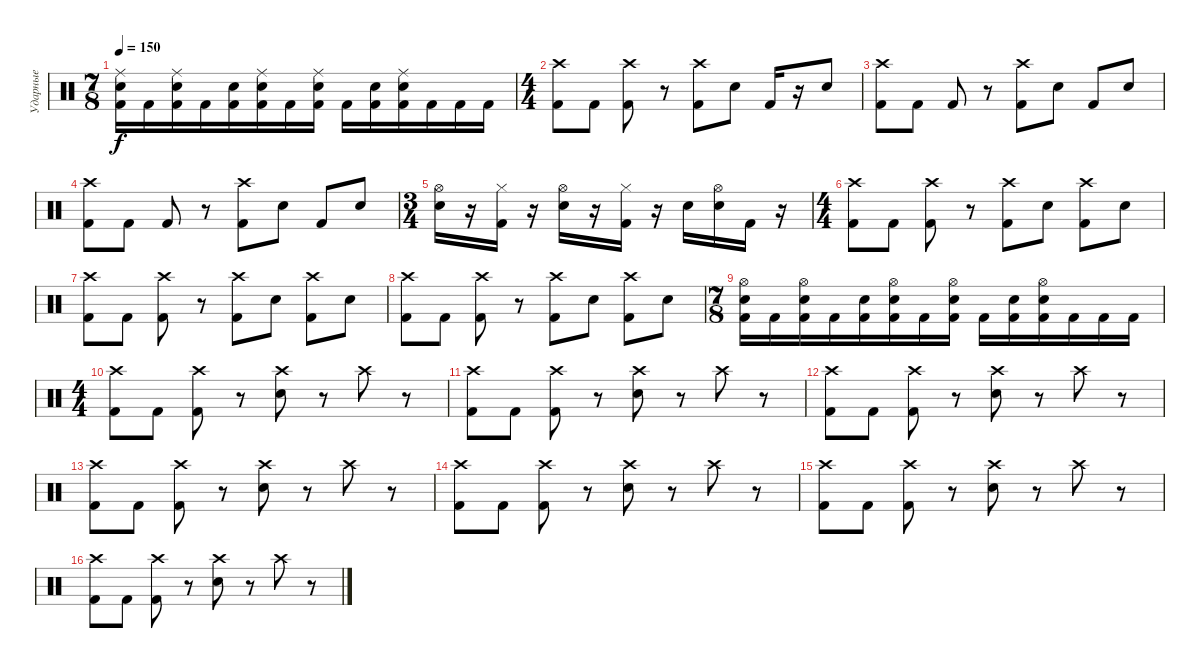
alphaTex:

\track ("Ударные" "Ударные") {instrument percussion}
\staff {score}
\articulation defaults
\ts (7 8)
\tempo 150
\clef neutral
\ks c
("Ride (middle)" "Electric Snare (hit)" "Kick (hit) 2").16{dy f} "Kick (hit) 2".16 ("Ride (middle)" "Electric Snare (hit)" "Kick (hit) 2").16 "Kick (hit) 2".16 ("Electric Snare (hit)" "Kick (hit) 2").16 ("Ride (middle)" "Electric Snare (hit)" "Kick (hit) 2").16 "Kick (hit) 2".16 ("Ride (middle)" "Electric Snare (hit)" "Kick (hit) 2").16 "Kick (hit) 2".16 ("Electric Snare (hit)" "Kick (hit) 2").16 ("Ride (middle)" "Electric Snare (hit)" "Kick (hit) 2").16 "Kick (hit) 2".16 "Kick (hit) 2".16 "Kick (hit) 2".16 |
\ts (4 4)
("Crash high (hit)" "Kick (hit) 2").8 "Kick (hit) 2".8 ("Crash high (hit)" "Kick (hit) 2").8 r.8 ("Crash high (hit)" "Kick (hit) 2").8 "Electric Snare (hit)".8 "Kick (hit) 2".16 r.16 "Electric Snare (hit)".8 |
("Crash high (hit)" "Kick (hit) 2").8 "Kick (hit) 2".8 "Kick (hit) 2".8 r.8 ("Crash high (hit)" "Kick (hit) 2").8 "Electric Snare (hit)".8 "Kick (hit) 2".8 "Electric Snare (hit)".8 |
("Crash high (hit)" "Kick (hit) 2").8 "Kick (hit) 2".8 "Kick (hit) 2".8 r.8 ("Crash high (hit)" "Kick (hit) 2").8 "Electric Snare (hit)".8 "Kick (hit) 2".8 "Electric Snare (hit)".8 |
\ts (3 4)
("Hi-Hat (open)" "Electric Snare (hit)").16 r.16 ("Hi-Hat (closed)" "Kick (hit) 2").16 r.16 ("Hi-Hat (open)" "Electric Snare (hit)").16 r.16 ("Hi-Hat (closed)" "Kick (hit) 2").16 r.16 "Electric Snare (hit)".16 ("Hi-Hat (open)" "Electric Snare (hit)").16 "Kick (hit) 2".16 r.16 |
\ts (4 4)
("Crash high (hit)" "Kick (hit) 2").8 "Kick (hit) 2".8 ("Crash high (hit)" "Kick (hit) 2").8 r.8 ("Crash high (hit)" "Kick (hit) 2").8 "Electric Snare (hit)".8 ("Crash high (hit)" "Kick (hit) 2").8 "Electric Snare (hit)".8 |
("Crash high (hit)" "Kick (hit) 2").8 "Kick (hit) 2".8 ("Crash high (hit)" "Kick (hit) 2").8 r.8 ("Crash high (hit)" "Kick (hit) 2").8 "Electric Snare (hit)".8 ("Crash high (hit)" "Kick (hit) 2").8 "Electric Snare (hit)".8 |
("Crash high (hit)" "Kick (hit) 2").8 "Kick (hit) 2".8 ("Crash high (hit)" "Kick (hit) 2").8 r.8 ("Crash high (hit)" "Kick (hit) 2").8 "Electric Snare (hit)".8 ("Crash high (hit)" "Kick (hit) 2").8 "Electric Snare (hit)".8 |
\ts (7 8)
("Hi-Hat (open)" "Electric Snare (hit)" "Kick (hit) 2").16 "Kick (hit) 2".16 ("Hi-Hat (open)" "Electric Snare (hit)" "Kick (hit) 2").16 "Kick (hit) 2".16 ("Electric Snare (hit)" "Kick (hit) 2").16 ("Hi-Hat (open)" "Electric Snare (hit)" "Kick (hit) 2").16 "Kick (hit) 2".16 ("Hi-Hat (open)" "Electric Snare (hit)" "Kick (hit) 2").16 "Kick (hit) 2".16 ("Electric Snare (hit)" "Kick (hit) 2").16 ("Hi-Hat (open)" "Electric Snare (hit)" "Kick (hit) 2").16 "Kick (hit) 2".16 "Kick (hit) 2".16 "Kick (hit) 2".16 |
\ts (4 4)
("Crash high (hit)" "Kick (hit) 2").8 "Kick (hit) 2".8 ("Crash high (hit)" "Kick (hit) 2").8 r.8 ("Crash high (hit)" "Electric Snare (hit)").8 r.8 "Crash high (hit)".8 r.8 |
("Crash high (hit)" "Kick (hit) 2").8 "Kick (hit) 2".8 ("Crash high (hit)" "Kick (hit) 2").8 r.8 ("Crash high (hit)" "Electric Snare (hit)").8 r.8 "Crash high (hit)".8 r.8 |
("Crash high (hit)" "Kick (hit) 2").8 "Kick (hit) 2".8 ("Crash high (hit)" "Kick (hit) 2").8 r.8 ("Crash high (hit)" "Electric Snare (hit)").8 r.8 "Crash high (hit)".8 r.8 |
("Crash high (hit)" "Kick (hit) 2").8 "Kick (hit) 2".8 ("Crash high (hit)" "Kick (hit) 2").8 r.8 ("Crash high (hit)" "Electric Snare (hit)").8 r.8 "Crash high (hit)".8 r.8 |
("Crash high (hit)" "Kick (hit) 2").8 "Kick (hit) 2".8 ("Crash high (hit)" "Kick (hit) 2").8 r.8 ("Crash high (hit)" "Electric Snare (hit)").8 r.8 "Crash high (hit)".8 r.8 |
("Crash high (hit)" "Kick (hit) 2").8 "Kick (hit) 2".8 ("Crash high (hit)" "Kick (hit) 2").8 r.8 ("Crash high (hit)" "Electric Snare (hit)").8 r.8 "Crash high (hit)".8 r.8 |
("Crash high (hit)" "Kick (hit) 2").8 "Kick (hit) 2".8 ("Crash high (hit)" "Kick (hit) 2").8 r.8 ("Crash high (hit)" "Electric Snare (hit)").8 r.8 "Crash high (hit)".8 r.8
